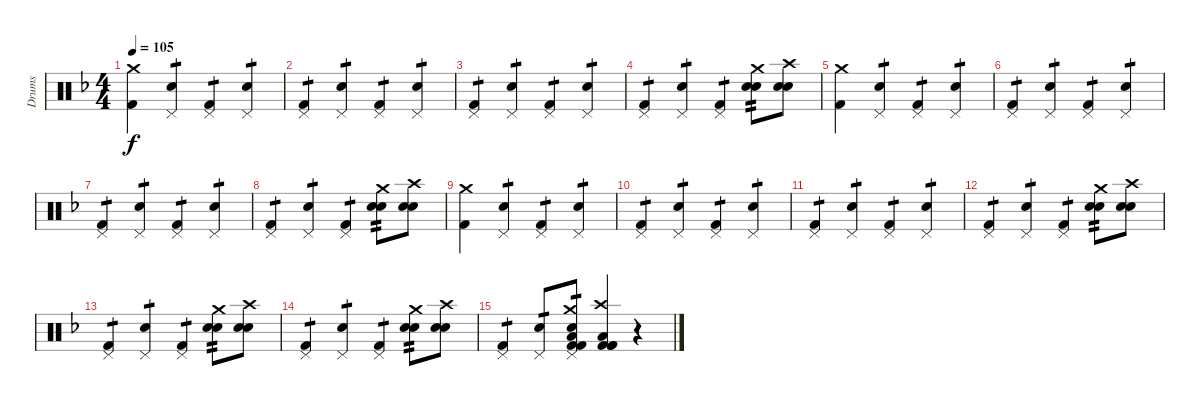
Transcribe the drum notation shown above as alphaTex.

\track ("Drums" "Drums") {instrument percussion}
\staff {score}
\articulation defaults
\ts (4 4)
\tempo 105
\clef neutral
\ks f
("Kick (hit) 2" "Crash medium (hit)").4{dy f} ("Snare (hit) 2" "Pedal Hi-Hat (hit)").4{tp 1} ("Kick (hit) 2" "Pedal Hi-Hat (hit)").4{tp 1} ("Snare (hit) 2" "Pedal Hi-Hat (hit)").4{tp 1} |
("Kick (hit) 2" "Pedal Hi-Hat (hit)").4{tp 1} ("Snare (hit) 2" "Pedal Hi-Hat (hit)").4{tp 1} ("Kick (hit) 2" "Pedal Hi-Hat (hit)").4{tp 1} ("Snare (hit) 2" "Pedal Hi-Hat (hit)").4{tp 1} |
("Kick (hit) 2" "Pedal Hi-Hat (hit)").4{tp 1} ("Snare (hit) 2" "Pedal Hi-Hat (hit)").4{tp 1} ("Kick (hit) 2" "Pedal Hi-Hat (hit)").4{tp 1} ("Snare (hit) 2" "Pedal Hi-Hat (hit)").4{tp 1} |
("Kick (hit) 2" "Pedal Hi-Hat (hit)").4{tp 1} ("Snare (hit) 2" "Pedal Hi-Hat (hit)").4{tp 1} ("Kick (hit) 2" "Pedal Hi-Hat (hit)").4{tp 1} ("Snare (hit) 2" "Snare (hit) 2" "Crash medium (hit)").8{tp 2} ("Snare (hit) 2" "Snare (hit) 2" "Crash high (hit)").8 |
("Kick (hit) 2" "Crash medium (hit)").4 ("Snare (hit) 2" "Pedal Hi-Hat (hit)").4{tp 1} ("Kick (hit) 2" "Pedal Hi-Hat (hit)").4{tp 1} ("Snare (hit) 2" "Pedal Hi-Hat (hit)").4{tp 1} |
("Kick (hit) 2" "Pedal Hi-Hat (hit)").4{tp 1} ("Snare (hit) 2" "Pedal Hi-Hat (hit)").4{tp 1} ("Kick (hit) 2" "Pedal Hi-Hat (hit)").4{tp 1} ("Snare (hit) 2" "Pedal Hi-Hat (hit)").4{tp 1} |
("Kick (hit) 2" "Pedal Hi-Hat (hit)").4{tp 1} ("Snare (hit) 2" "Pedal Hi-Hat (hit)").4{tp 1} ("Kick (hit) 2" "Pedal Hi-Hat (hit)").4{tp 1} ("Snare (hit) 2" "Pedal Hi-Hat (hit)").4{tp 1} |
("Kick (hit) 2" "Pedal Hi-Hat (hit)").4{tp 1} ("Snare (hit) 2" "Pedal Hi-Hat (hit)").4{tp 1} ("Kick (hit) 2" "Pedal Hi-Hat (hit)").4{tp 1} ("Snare (hit) 2" "Snare (hit) 2" "Crash medium (hit)").8{tp 2} ("Snare (hit) 2" "Snare (hit) 2" "Crash high (hit)").8 |
("Kick (hit) 2" "Crash medium (hit)").4 ("Snare (hit) 2" "Pedal Hi-Hat (hit)").4{tp 1} ("Kick (hit) 2" "Pedal Hi-Hat (hit)").4{tp 1} ("Snare (hit) 2" "Pedal Hi-Hat (hit)").4{tp 1} |
("Kick (hit) 2" "Pedal Hi-Hat (hit)").4{tp 1} ("Snare (hit) 2" "Pedal Hi-Hat (hit)").4{tp 1} ("Kick (hit) 2" "Pedal Hi-Hat (hit)").4{tp 1} ("Snare (hit) 2" "Pedal Hi-Hat (hit)").4{tp 1} |
("Kick (hit) 2" "Pedal Hi-Hat (hit)").4{tp 1} ("Snare (hit) 2" "Pedal Hi-Hat (hit)").4{tp 1} ("Kick (hit) 2" "Pedal Hi-Hat (hit)").4{tp 1} ("Snare (hit) 2" "Pedal Hi-Hat (hit)").4{tp 1} |
("Kick (hit) 2" "Pedal Hi-Hat (hit)").4{tp 1} ("Snare (hit) 2" "Pedal Hi-Hat (hit)").4{tp 1} ("Kick (hit) 2" "Pedal Hi-Hat (hit)").4{tp 1} ("Snare (hit) 2" "Snare (hit) 2" "Crash medium (hit)").8{tp 2} ("Snare (hit) 2" "Snare (hit) 2" "Crash high (hit)").8 |
("Kick (hit) 2" "Pedal Hi-Hat (hit)").4{tp 1} ("Snare (hit) 2" "Pedal Hi-Hat (hit)").4{tp 1} ("Kick (hit) 2" "Pedal Hi-Hat (hit)").4{tp 1} ("Snare (hit) 2" "Snare (hit) 2" "Crash medium (hit)").8{tp 2} ("Snare (hit) 2" "Snare (hit) 2" "Crash high (hit)").8 |
("Kick (hit) 2" "Pedal Hi-Hat (hit)").4{tp 1} ("Snare (hit) 2" "Pedal Hi-Hat (hit)").4{tp 1} ("Kick (hit) 2" "Pedal Hi-Hat (hit)").4{tp 1} ("Snare (hit) 2" "Snare (hit) 2" "Crash medium (hit)").8{tp 2} ("Snare (hit) 2" "Snare (hit) 2" "Crash high (hit)").8 |
("Kick (hit) 2" "Pedal Hi-Hat (hit)").4{tp 1} ("Snare (hit) 2" "Pedal Hi-Hat (hit)").8{tp 1} ("Kick (hit) 2" "Snare (hit) 2" "Low Floor Tom (hit)" "Crash medium (hit)" "Pedal Hi-Hat (hit)" "Kick (hit) 2").8{tp 1} ("Kick (hit) 2" "Kick (hit) 2" "Low Floor Tom (hit)" "Crash high (hit)" "Kick (hit) 2").4 r.4
